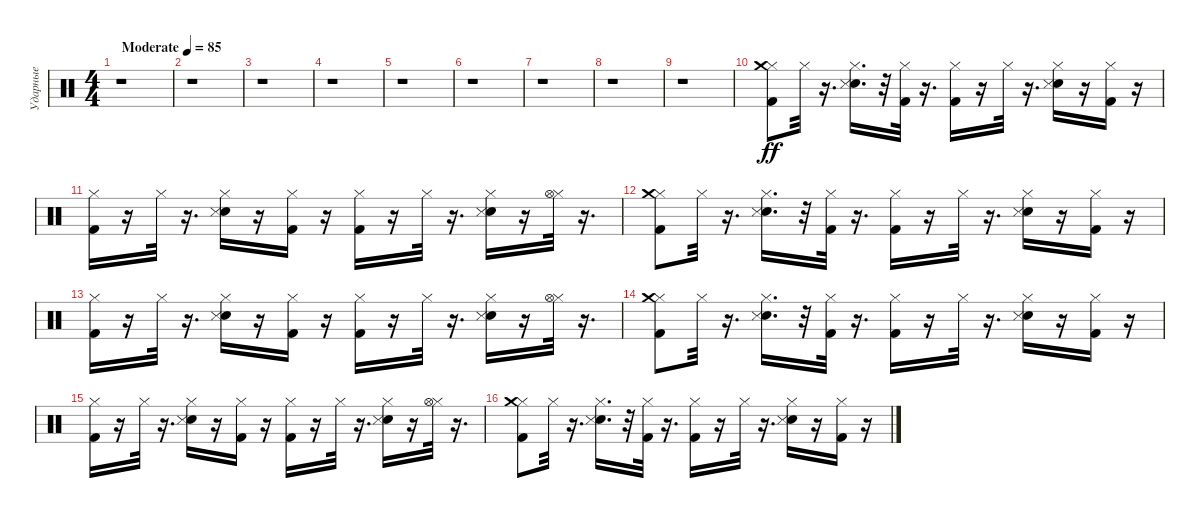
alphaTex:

\track ("Ударные" "Ударные") {instrument percussion}
\staff {score}
\articulation defaults
\ts (4 4)
\tempo (85 "Moderate")
\clef neutral
\ks c
r.1{dy ff} |
r.1 |
r.1 |
r.1 |
r.1 |
r.1 |
r.1 |
r.1 |
r.1 |
("Kick (hit) 2" "Hi-Hat (closed)" "Crash medium (hit)").8 "Hi-Hat (closed)".32 r.16{d} ("Electric Snare (hit)" "Hi-Hat (closed)" "Snare (side stick) 3").16{d} r.32 ("Kick (hit) 2" "Hi-Hat (closed)").32 r.16{d} ("Kick (hit) 2" "Hi-Hat (closed)").16 r.16 "Hi-Hat (closed)".32 r.16{d} ("Electric Snare (hit)" "Hi-Hat (closed)" "Snare (side stick) 3").16 r.16 ("Kick (hit) 2" "Hi-Hat (closed)").16 r.16 |
("Hi-Hat (closed)" "Kick (hit) 2").16 r.16 "Hi-Hat (closed)".32 r.16{d} ("Electric Snare (hit)" "Hi-Hat (closed)" "Snare (side stick) 3").16 r.16 ("Kick (hit) 2" "Hi-Hat (closed)").16 r.16 ("Kick (hit) 2" "Hi-Hat (closed)").16 r.16 "Hi-Hat (closed)".32 r.16{d} ("Electric Snare (hit)" "Hi-Hat (closed)" "Snare (side stick) 3").16 r.16 ("Hi-Hat (closed)" "Hi-Hat (open)").32 r.16{d} |
("Kick (hit) 2" "Hi-Hat (closed)" "Crash medium (hit)").8 "Hi-Hat (closed)".32 r.16{d} ("Electric Snare (hit)" "Hi-Hat (closed)" "Snare (side stick) 3").16{d} r.32 ("Kick (hit) 2" "Hi-Hat (closed)").32 r.16{d} ("Kick (hit) 2" "Hi-Hat (closed)").16 r.16 "Hi-Hat (closed)".32 r.16{d} ("Electric Snare (hit)" "Hi-Hat (closed)" "Snare (side stick) 3").16 r.16 ("Kick (hit) 2" "Hi-Hat (closed)").16 r.16 |
("Hi-Hat (closed)" "Kick (hit) 2").16 r.16 "Hi-Hat (closed)".32 r.16{d} ("Electric Snare (hit)" "Hi-Hat (closed)" "Snare (side stick) 3").16 r.16 ("Kick (hit) 2" "Hi-Hat (closed)").16 r.16 ("Kick (hit) 2" "Hi-Hat (closed)").16 r.16 "Hi-Hat (closed)".32 r.16{d} ("Electric Snare (hit)" "Hi-Hat (closed)" "Snare (side stick) 3").16 r.16 ("Hi-Hat (closed)" "Hi-Hat (open)").32 r.16{d} |
("Kick (hit) 2" "Hi-Hat (closed)" "Crash medium (hit)").8 "Hi-Hat (closed)".32 r.16{d} ("Electric Snare (hit)" "Hi-Hat (closed)" "Snare (side stick) 3").16{d} r.32 ("Kick (hit) 2" "Hi-Hat (closed)").32 r.16{d} ("Kick (hit) 2" "Hi-Hat (closed)").16 r.16 "Hi-Hat (closed)".32 r.16{d} ("Electric Snare (hit)" "Hi-Hat (closed)" "Snare (side stick) 3").16 r.16 ("Kick (hit) 2" "Hi-Hat (closed)").16 r.16 |
("Hi-Hat (closed)" "Kick (hit) 2").16 r.16 "Hi-Hat (closed)".32 r.16{d} ("Electric Snare (hit)" "Hi-Hat (closed)" "Snare (side stick) 3").16 r.16 ("Kick (hit) 2" "Hi-Hat (closed)").16 r.16 ("Kick (hit) 2" "Hi-Hat (closed)").16 r.16 "Hi-Hat (closed)".32 r.16{d} ("Electric Snare (hit)" "Hi-Hat (closed)" "Snare (side stick) 3").16 r.16 ("Hi-Hat (closed)" "Hi-Hat (open)").32 r.16{d} |
("Kick (hit) 2" "Hi-Hat (closed)" "Crash medium (hit)").8 "Hi-Hat (closed)".32 r.16{d} ("Electric Snare (hit)" "Hi-Hat (closed)" "Snare (side stick) 3").16{d} r.32 ("Kick (hit) 2" "Hi-Hat (closed)").32 r.16{d} ("Kick (hit) 2" "Hi-Hat (closed)").16 r.16 "Hi-Hat (closed)".32 r.16{d} ("Electric Snare (hit)" "Hi-Hat (closed)" "Snare (side stick) 3").16 r.16 ("Kick (hit) 2" "Hi-Hat (closed)").16 r.16
